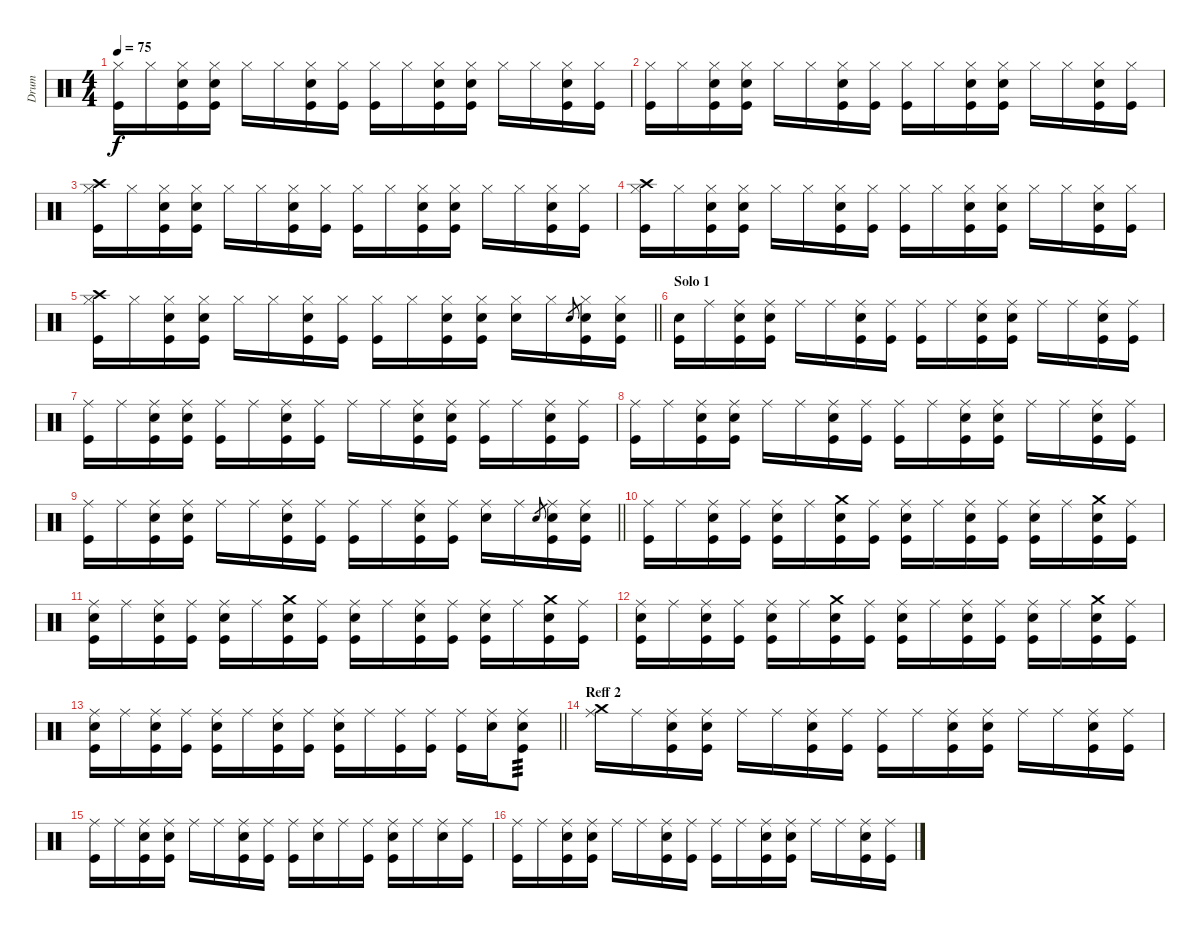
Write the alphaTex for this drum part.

\track ("Drum" "Drum") {instrument percussion}
\staff {score}
\articulation defaults
\ts (4 4)
\tempo 75
\clef neutral
\ks c
("Hi-Hat (closed)" "Kick (hit)").16{dy f} "Hi-Hat (closed)".16 ("Hi-Hat (closed)" "Electric Snare (hit)" "Kick (hit)").16 ("Hi-Hat (closed)" "Electric Snare (hit)" "Kick (hit)").16 "Hi-Hat (closed)".16 "Hi-Hat (closed)".16 ("Hi-Hat (closed)" "Electric Snare (hit)" "Kick (hit)").16 ("Hi-Hat (closed)" "Kick (hit)").16 ("Hi-Hat (closed)" "Kick (hit)").16 "Hi-Hat (closed)".16 ("Hi-Hat (closed)" "Electric Snare (hit)" "Kick (hit)").16 ("Hi-Hat (closed)" "Electric Snare (hit)" "Kick (hit)").16 "Hi-Hat (closed)".16 "Hi-Hat (closed)".16 ("Hi-Hat (closed)" "Electric Snare (hit)" "Kick (hit)").16 ("Hi-Hat (closed)" "Kick (hit)").16 |
("Hi-Hat (closed)" "Kick (hit)").16 "Hi-Hat (closed)".16 ("Hi-Hat (closed)" "Electric Snare (hit)" "Kick (hit)").16 ("Hi-Hat (closed)" "Electric Snare (hit)" "Kick (hit)").16 "Hi-Hat (closed)".16 "Hi-Hat (closed)".16 ("Hi-Hat (closed)" "Electric Snare (hit)" "Kick (hit)").16 ("Hi-Hat (closed)" "Kick (hit)").16 ("Hi-Hat (closed)" "Kick (hit)").16 "Hi-Hat (closed)".16 ("Hi-Hat (closed)" "Electric Snare (hit)" "Kick (hit)").16 ("Hi-Hat (closed)" "Electric Snare (hit)" "Kick (hit)").16 "Hi-Hat (closed)".16 "Hi-Hat (closed)".16 ("Hi-Hat (closed)" "Electric Snare (hit)" "Kick (hit)").16 ("Hi-Hat (closed)" "Kick (hit)").16 |
("Hi-Hat (closed)" "Crash high (hit)" "Kick (hit)").16 "Hi-Hat (closed)".16 ("Hi-Hat (closed)" "Electric Snare (hit)" "Kick (hit)").16 ("Hi-Hat (closed)" "Electric Snare (hit)" "Kick (hit)").16 "Hi-Hat (closed)".16 "Hi-Hat (closed)".16 ("Hi-Hat (closed)" "Electric Snare (hit)" "Kick (hit)").16 ("Hi-Hat (closed)" "Kick (hit)").16 ("Hi-Hat (closed)" "Kick (hit)").16 "Hi-Hat (closed)".16 ("Hi-Hat (closed)" "Electric Snare (hit)" "Kick (hit)").16 ("Hi-Hat (closed)" "Electric Snare (hit)" "Kick (hit)").16 "Hi-Hat (closed)".16 "Hi-Hat (closed)".16 ("Hi-Hat (closed)" "Electric Snare (hit)" "Kick (hit)").16 ("Hi-Hat (closed)" "Kick (hit)").16 |
("Hi-Hat (closed)" "Crash high (hit)" "Kick (hit)").16 "Hi-Hat (closed)".16 ("Hi-Hat (closed)" "Electric Snare (hit)" "Kick (hit)").16 ("Hi-Hat (closed)" "Electric Snare (hit)" "Kick (hit)").16 "Hi-Hat (closed)".16 "Hi-Hat (closed)".16 ("Hi-Hat (closed)" "Electric Snare (hit)" "Kick (hit)").16 ("Hi-Hat (closed)" "Kick (hit)").16 ("Hi-Hat (closed)" "Kick (hit)").16 "Hi-Hat (closed)".16 ("Hi-Hat (closed)" "Electric Snare (hit)" "Kick (hit)").16 ("Hi-Hat (closed)" "Electric Snare (hit)" "Kick (hit)").16 "Hi-Hat (closed)".16 "Hi-Hat (closed)".16 ("Hi-Hat (closed)" "Electric Snare (hit)" "Kick (hit)").16 ("Hi-Hat (closed)" "Kick (hit)").16 |
\barLineRight lightlight
("Hi-Hat (closed)" "Crash high (hit)" "Kick (hit)").16 "Hi-Hat (closed)".16 ("Hi-Hat (closed)" "Electric Snare (hit)" "Kick (hit)").16 ("Hi-Hat (closed)" "Electric Snare (hit)" "Kick (hit)").16 "Hi-Hat (closed)".16 "Hi-Hat (closed)".16 ("Hi-Hat (closed)" "Electric Snare (hit)" "Kick (hit)").16 ("Hi-Hat (closed)" "Kick (hit)").16 ("Hi-Hat (closed)" "Kick (hit)").16 "Hi-Hat (closed)".16 ("Hi-Hat (closed)" "Electric Snare (hit)" "Kick (hit)").16 ("Hi-Hat (closed)" "Electric Snare (hit)" "Kick (hit)").16 ("Hi-Hat (closed)" "Electric Snare (hit)").16 "Hi-Hat (closed)".16 "Electric Snare (hit)".8{gr} ("Hi-Hat (closed)" "Electric Snare (hit)" "Kick (hit)").16 ("Hi-Hat (closed)" "Electric Snare (hit)" "Kick (hit)").16 |
\section ("" "Solo 1")
("Electric Snare (hit)" "Kick (hit)").16 "Ride (middle)".16 ("Ride (middle)" "Electric Snare (hit)" "Kick (hit)").16 ("Ride (middle)" "Electric Snare (hit)" "Kick (hit)").16 "Ride (middle)".16 "Ride (middle)".16 ("Ride (middle)" "Electric Snare (hit)" "Kick (hit)").16 ("Ride (middle)" "Kick (hit)").16 ("Ride (middle)" "Kick (hit)").16 "Ride (middle)".16 ("Ride (middle)" "Electric Snare (hit)" "Kick (hit)").16 ("Ride (middle)" "Electric Snare (hit)" "Kick (hit)").16 "Ride (middle)".16 "Ride (middle)".16 ("Ride (middle)" "Electric Snare (hit)" "Kick (hit)").16 ("Ride (middle)" "Kick (hit)").16 |
("Ride (middle)" "Kick (hit)").16 "Ride (middle)".16 ("Ride (middle)" "Electric Snare (hit)" "Kick (hit)").16 ("Ride (middle)" "Electric Snare (hit)" "Kick (hit)").16 ("Ride (middle)" "Kick (hit)").16 "Ride (middle)".16 ("Ride (middle)" "Electric Snare (hit)" "Kick (hit)").16 ("Ride (middle)" "Kick (hit)").16 "Ride (middle)".16 "Ride (middle)".16 ("Ride (middle)" "Electric Snare (hit)" "Kick (hit)").16 ("Ride (middle)" "Electric Snare (hit)" "Kick (hit)").16 ("Ride (middle)" "Kick (hit)").16 "Ride (middle)".16 ("Ride (middle)" "Electric Snare (hit)" "Kick (hit)").16 ("Ride (middle)" "Kick (hit)").16 |
("Ride (middle)" "Kick (hit)").16 "Ride (middle)".16 ("Ride (middle)" "Electric Snare (hit)" "Kick (hit)").16 ("Ride (middle)" "Electric Snare (hit)" "Kick (hit)").16 "Ride (middle)".16 "Ride (middle)".16 ("Ride (middle)" "Electric Snare (hit)" "Kick (hit)").16 ("Ride (middle)" "Kick (hit)").16 ("Ride (middle)" "Kick (hit)").16 "Ride (middle)".16 ("Ride (middle)" "Electric Snare (hit)" "Kick (hit)").16 ("Ride (middle)" "Electric Snare (hit)" "Kick (hit)").16 "Ride (middle)".16 "Ride (middle)".16 ("Ride (middle)" "Electric Snare (hit)" "Kick (hit)").16 ("Ride (middle)" "Kick (hit)").16 |
\barLineRight lightlight
("Ride (middle)" "Kick (hit)").16 "Ride (middle)".16 ("Ride (middle)" "Electric Snare (hit)" "Kick (hit)").16 ("Ride (middle)" "Electric Snare (hit)" "Kick (hit)").16 "Ride (middle)".16 "Ride (middle)".16 ("Ride (middle)" "Electric Snare (hit)" "Kick (hit)").16 ("Ride (middle)" "Kick (hit)").16 ("Ride (middle)" "Kick (hit)").16 "Ride (middle)".16 ("Ride (middle)" "Electric Snare (hit)" "Kick (hit)").16 ("Ride (middle)" "Kick (hit)").16 ("Ride (middle)" "Electric Snare (hit)").16 "Ride (middle)".16 "Electric Snare (hit)".8{gr} ("Ride (middle)" "Electric Snare (hit)" "Kick (hit)").16 ("Ride (middle)" "Electric Snare (hit)" "Kick (hit)").16 |
("Ride (middle)" "Kick (hit)").16 "Ride (middle)".16 ("Ride (middle)" "Electric Snare (hit)" "Kick (hit)").16 ("Ride (middle)" "Kick (hit)").16 ("Ride (middle)" "Electric Snare (hit)" "Kick (hit)").16 "Ride (middle)".16 ("Electric Snare (hit)" "Crash medium (hit)" "Kick (hit)").16 ("Ride (middle)" "Kick (hit)").16 ("Ride (middle)" "Electric Snare (hit)" "Kick (hit)").16 "Ride (middle)".16 ("Ride (middle)" "Electric Snare (hit)" "Kick (hit)").16 ("Ride (middle)" "Kick (hit)").16 ("Ride (middle)" "Electric Snare (hit)" "Kick (hit)").16 "Ride (middle)".16 ("Electric Snare (hit)" "Crash medium (hit)" "Kick (hit)").16 ("Ride (middle)" "Kick (hit)").16 |
("Ride (middle)" "Electric Snare (hit)" "Kick (hit)").16 "Ride (middle)".16 ("Ride (middle)" "Electric Snare (hit)" "Kick (hit)").16 ("Ride (middle)" "Kick (hit)").16 ("Ride (middle)" "Electric Snare (hit)" "Kick (hit)").16 "Ride (middle)".16 ("Electric Snare (hit)" "Crash medium (hit)" "Kick (hit)").16 ("Ride (middle)" "Kick (hit)").16 ("Ride (middle)" "Electric Snare (hit)" "Kick (hit)").16 "Ride (middle)".16 ("Ride (middle)" "Electric Snare (hit)" "Kick (hit)").16 ("Ride (middle)" "Kick (hit)").16 ("Ride (middle)" "Electric Snare (hit)" "Kick (hit)").16 "Ride (middle)".16 ("Electric Snare (hit)" "Crash medium (hit)" "Kick (hit)").16 ("Ride (middle)" "Kick (hit)").16 |
("Ride (middle)" "Electric Snare (hit)" "Kick (hit)").16 "Ride (middle)".16 ("Ride (middle)" "Electric Snare (hit)" "Kick (hit)").16 ("Ride (middle)" "Kick (hit)").16 ("Ride (middle)" "Electric Snare (hit)" "Kick (hit)").16 "Ride (middle)".16 ("Electric Snare (hit)" "Crash medium (hit)" "Kick (hit)").16 ("Ride (middle)" "Kick (hit)").16 ("Ride (middle)" "Electric Snare (hit)" "Kick (hit)").16 "Ride (middle)".16 ("Ride (middle)" "Electric Snare (hit)" "Kick (hit)").16 ("Ride (middle)" "Kick (hit)").16 ("Ride (middle)" "Electric Snare (hit)" "Kick (hit)").16 "Ride (middle)".16 ("Electric Snare (hit)" "Crash medium (hit)" "Kick (hit)").16 ("Ride (middle)" "Kick (hit)").16 |
\barLineRight lightlight
("Ride (middle)" "Electric Snare (hit)" "Kick (hit)").16 "Ride (middle)".16 ("Ride (middle)" "Electric Snare (hit)" "Kick (hit)").16 ("Ride (middle)" "Kick (hit)").16 ("Ride (middle)" "Electric Snare (hit)" "Kick (hit)").16 "Ride (middle)".16 ("Ride (middle)" "Electric Snare (hit)" "Kick (hit)").16 ("Ride (middle)" "Kick (hit)").16 ("Ride (middle)" "Electric Snare (hit)" "Kick (hit)").16 "Ride (middle)".16 ("Ride (middle)" "Kick (hit)").16 ("Ride (middle)" "Kick (hit)").16 ("Ride (middle)" "Kick (hit)").16 ("Ride (middle)" "Electric Snare (hit)").16 ("Ride (middle)" "Electric Snare (hit)" "Kick (hit)").8{tp 3} |
\section ("" "Reff 2")
("Ride (middle)" "Crash medium (hit)").16 "Ride (middle)".16 ("Ride (middle)" "Electric Snare (hit)" "Kick (hit)").16 ("Ride (middle)" "Electric Snare (hit)" "Kick (hit)").16 "Ride (middle)".16 "Ride (middle)".16 ("Ride (middle)" "Electric Snare (hit)" "Kick (hit)").16 ("Ride (middle)" "Kick (hit)").16 ("Ride (middle)" "Kick (hit)").16 "Ride (middle)".16 ("Ride (middle)" "Electric Snare (hit)" "Kick (hit)").16 ("Ride (middle)" "Electric Snare (hit)" "Kick (hit)").16 "Ride (middle)".16 "Ride (middle)".16 ("Ride (middle)" "Electric Snare (hit)" "Kick (hit)").16 ("Ride (middle)" "Kick (hit)").16 |
("Ride (middle)" "Kick (hit)").16 "Ride (middle)".16 ("Ride (middle)" "Electric Snare (hit)" "Kick (hit)").16 ("Ride (middle)" "Electric Snare (hit)" "Kick (hit)").16 "Ride (middle)".16 "Ride (middle)".16 ("Ride (middle)" "Electric Snare (hit)" "Kick (hit)").16 ("Ride (middle)" "Kick (hit)").16 ("Ride (middle)" "Kick (hit)").16 ("Ride (middle)" "Electric Snare (hit)").16 "Ride (middle)".16 ("Ride (middle)" "Kick (hit)").16 ("Ride (middle)" "Electric Snare (hit)" "Kick (hit)").16 "Ride (middle)".16 ("Ride (middle)" "Electric Snare (hit)").16 ("Ride (middle)" "Kick (hit)").16 |
("Ride (middle)" "Kick (hit)").16 "Ride (middle)".16 ("Ride (middle)" "Electric Snare (hit)" "Kick (hit)").16 ("Ride (middle)" "Electric Snare (hit)" "Kick (hit)").16 "Ride (middle)".16 "Ride (middle)".16 ("Ride (middle)" "Electric Snare (hit)" "Kick (hit)").16 ("Ride (middle)" "Kick (hit)").16 ("Ride (middle)" "Kick (hit)").16 "Ride (middle)".16 ("Ride (middle)" "Electric Snare (hit)" "Kick (hit)").16 ("Ride (middle)" "Electric Snare (hit)" "Kick (hit)").16 "Ride (middle)".16 "Ride (middle)".16 ("Ride (middle)" "Electric Snare (hit)" "Kick (hit)").16 ("Ride (middle)" "Kick (hit)").16
